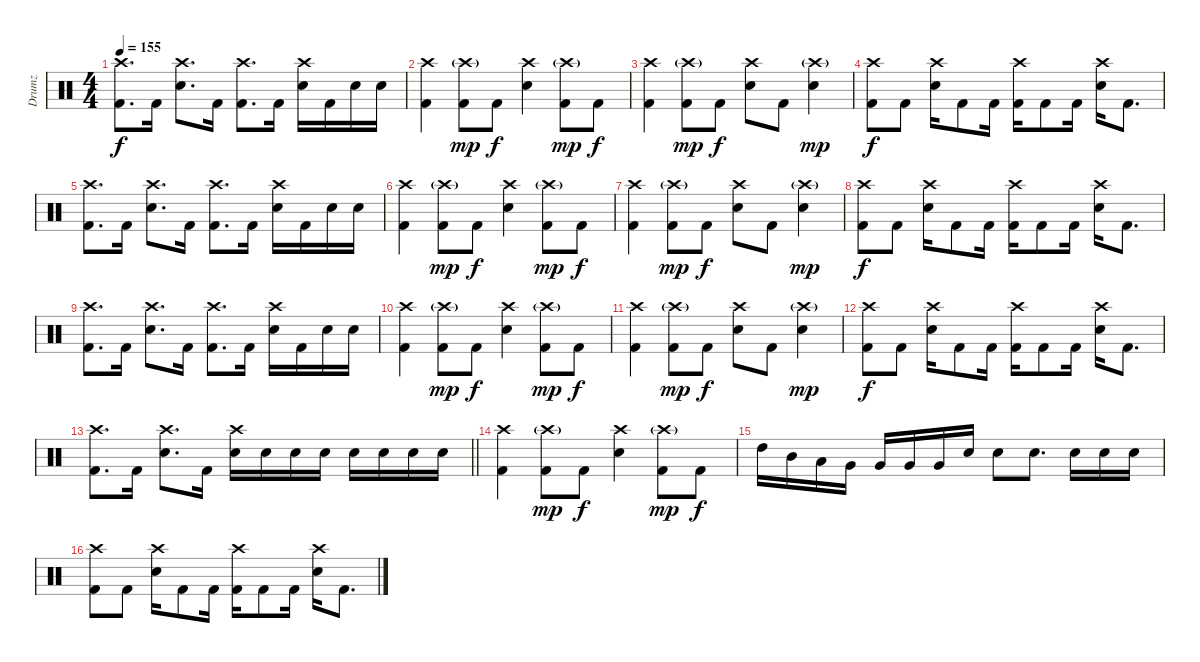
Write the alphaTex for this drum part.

\track ("Drumz" "Drumz") {instrument percussion}
\staff {score}
\articulation defaults
\ts (4 4)
\tempo 155
\clef neutral
\ks c
("Kick (hit) 2" "Crash high (hit)").8{d dy f} "Kick (hit) 2".16 ("Crash high (hit)" "Electric Snare (hit)").8{d} "Kick (hit) 2".16 ("Kick (hit) 2" "Crash high (hit)").8{d} "Kick (hit) 2".16 ("Crash high (hit)" "Electric Snare (hit)").16 "Kick (hit) 2".16 "Electric Snare (hit)".16 "Electric Snare (hit)".16 |
("Kick (hit) 2" "Crash high (hit)").4 ("Kick (hit) 2" "Crash high (hit)"{g}).8{dy mp} "Kick (hit) 2".8{dy f} ("Crash high (hit)" "Electric Snare (hit)").4 ("Kick (hit) 2" "Crash high (hit)"{g}).8{dy mp} "Kick (hit) 2".8{dy f} |
("Kick (hit) 2" "Crash high (hit)").4 ("Kick (hit) 2" "Crash high (hit)"{g}).8{dy mp} "Kick (hit) 2".8{dy f} ("Crash high (hit)" "Electric Snare (hit)").8 "Kick (hit) 2".8 ("Electric Snare (hit)" "Crash high (hit)"{g}).4{dy mp} |
("Kick (hit) 2" "Crash high (hit)").8{dy f} "Kick (hit) 2".8 ("Crash high (hit)" "Electric Snare (hit)").16 "Kick (hit) 2".8 "Kick (hit) 2".16 ("Kick (hit) 2" "Crash high (hit)").16 "Kick (hit) 2".8 "Kick (hit) 2".16 ("Crash high (hit)" "Electric Snare (hit)").16 "Kick (hit) 2".8{d} |
("Kick (hit) 2" "Crash high (hit)").8{d} "Kick (hit) 2".16 ("Crash high (hit)" "Electric Snare (hit)").8{d} "Kick (hit) 2".16 ("Kick (hit) 2" "Crash high (hit)").8{d} "Kick (hit) 2".16 ("Crash high (hit)" "Electric Snare (hit)").16 "Kick (hit) 2".16 "Electric Snare (hit)".16 "Electric Snare (hit)".16 |
("Kick (hit) 2" "Crash high (hit)").4 ("Kick (hit) 2" "Crash high (hit)"{g}).8{dy mp} "Kick (hit) 2".8{dy f} ("Crash high (hit)" "Electric Snare (hit)").4 ("Kick (hit) 2" "Crash high (hit)"{g}).8{dy mp} "Kick (hit) 2".8{dy f} |
("Kick (hit) 2" "Crash high (hit)").4 ("Kick (hit) 2" "Crash high (hit)"{g}).8{dy mp} "Kick (hit) 2".8{dy f} ("Crash high (hit)" "Electric Snare (hit)").8 "Kick (hit) 2".8 ("Electric Snare (hit)" "Crash high (hit)"{g}).4{dy mp} |
("Kick (hit) 2" "Crash high (hit)").8{dy f} "Kick (hit) 2".8 ("Crash high (hit)" "Electric Snare (hit)").16 "Kick (hit) 2".8 "Kick (hit) 2".16 ("Kick (hit) 2" "Crash high (hit)").16 "Kick (hit) 2".8 "Kick (hit) 2".16 ("Crash high (hit)" "Electric Snare (hit)").16 "Kick (hit) 2".8{d} |
("Kick (hit) 2" "Crash high (hit)").8{d} "Kick (hit) 2".16 ("Crash high (hit)" "Electric Snare (hit)").8{d} "Kick (hit) 2".16 ("Kick (hit) 2" "Crash high (hit)").8{d} "Kick (hit) 2".16 ("Crash high (hit)" "Electric Snare (hit)").16 "Kick (hit) 2".16 "Electric Snare (hit)".16 "Electric Snare (hit)".16 |
("Kick (hit) 2" "Crash high (hit)").4 ("Kick (hit) 2" "Crash high (hit)"{g}).8{dy mp} "Kick (hit) 2".8{dy f} ("Crash high (hit)" "Electric Snare (hit)").4 ("Kick (hit) 2" "Crash high (hit)"{g}).8{dy mp} "Kick (hit) 2".8{dy f} |
("Kick (hit) 2" "Crash high (hit)").4 ("Kick (hit) 2" "Crash high (hit)"{g}).8{dy mp} "Kick (hit) 2".8{dy f} ("Crash high (hit)" "Electric Snare (hit)").8 "Kick (hit) 2".8 ("Electric Snare (hit)" "Crash high (hit)"{g}).4{dy mp} |
("Kick (hit) 2" "Crash high (hit)").8{dy f} "Kick (hit) 2".8 ("Crash high (hit)" "Electric Snare (hit)").16 "Kick (hit) 2".8 "Kick (hit) 2".16 ("Kick (hit) 2" "Crash high (hit)").16 "Kick (hit) 2".8 "Kick (hit) 2".16 ("Crash high (hit)" "Electric Snare (hit)").16 "Kick (hit) 2".8{d} |
\barLineRight lightlight
("Kick (hit) 2" "Crash high (hit)").8{d} "Kick (hit) 2".16 ("Crash high (hit)" "Electric Snare (hit)").8{d} "Kick (hit) 2".16 ("Electric Snare (hit)" "Crash high (hit)").16 "Electric Snare (hit)".16 "Electric Snare (hit)".16 "Electric Snare (hit)".16 "Electric Snare (hit)".16 "Electric Snare (hit)".16 "Electric Snare (hit)".16 "Electric Snare (hit)".16 |
("Kick (hit) 2" "Crash high (hit)").4 ("Kick (hit) 2" "Crash high (hit)"{g}).8{dy mp} "Kick (hit) 2".8{dy f} ("Crash high (hit)" "Electric Snare (hit)").4 ("Kick (hit) 2" "Crash high (hit)"{g}).8{dy mp} "Kick (hit) 2".8{dy f} |
"High Tom (hit)".16 "Mid Tom (hit)".16 "Low Tom (hit)".16 "Very Low Tom (hit)".16 "Very Low Tom (hit)".16 "Very Low Tom (hit)".16 "Very Low Tom (hit)".16 "Electric Snare (hit)".16 "Electric Snare (hit)".8 "Electric Snare (hit)".8{d} "Electric Snare (hit)".16 "Electric Snare (hit)".16 "Electric Snare (hit)".16 |
("Kick (hit) 2" "Crash high (hit)").8 "Kick (hit) 2".8 ("Crash high (hit)" "Electric Snare (hit)").16 "Kick (hit) 2".8 "Kick (hit) 2".16 ("Kick (hit) 2" "Crash high (hit)").16 "Kick (hit) 2".8 "Kick (hit) 2".16 ("Crash high (hit)" "Electric Snare (hit)").16 "Kick (hit) 2".8{d}
